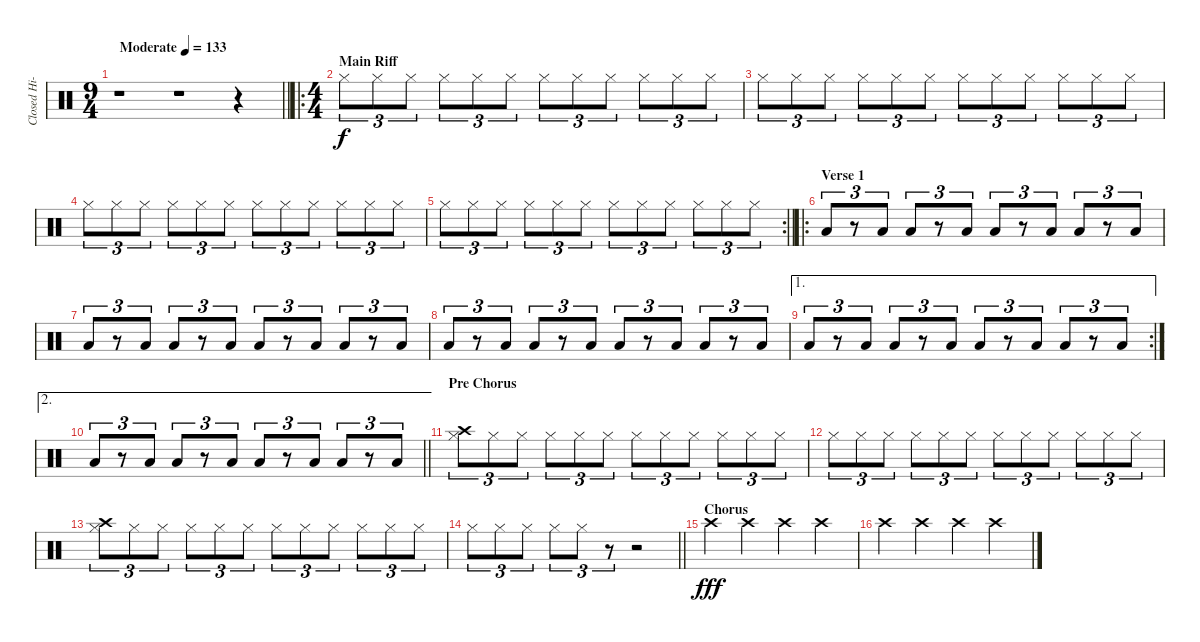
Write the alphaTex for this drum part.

\track ("Closed Hi-hat/Synth" "Closed Hi-") {instrument percussion}
\staff {score}
\articulation defaults
\ts (9 4)
\tempo (133 "Moderate")
\clef neutral
\barLineRight lightlight
\ks c
r.1{dy f} r.1 r.4 |
\ro
\ts (4 4)
\section ("" "Main Riff")
"Hi-Hat (closed)".8{tu (3 2)} "Hi-Hat (closed)".8{tu (3 2)} "Hi-Hat (closed)".8{tu (3 2)} "Hi-Hat (closed)".8{tu (3 2)} "Hi-Hat (closed)".8{tu (3 2)} "Hi-Hat (closed)".8{tu (3 2)} "Hi-Hat (closed)".8{tu (3 2)} "Hi-Hat (closed)".8{tu (3 2)} "Hi-Hat (closed)".8{tu (3 2)} "Hi-Hat (closed)".8{tu (3 2)} "Hi-Hat (closed)".8{tu (3 2)} "Hi-Hat (closed)".8{tu (3 2)} |
"Hi-Hat (closed)".8{tu (3 2)} "Hi-Hat (closed)".8{tu (3 2)} "Hi-Hat (closed)".8{tu (3 2)} "Hi-Hat (closed)".8{tu (3 2)} "Hi-Hat (closed)".8{tu (3 2)} "Hi-Hat (closed)".8{tu (3 2)} "Hi-Hat (closed)".8{tu (3 2)} "Hi-Hat (closed)".8{tu (3 2)} "Hi-Hat (closed)".8{tu (3 2)} "Hi-Hat (closed)".8{tu (3 2)} "Hi-Hat (closed)".8{tu (3 2)} "Hi-Hat (closed)".8{tu (3 2)} |
"Hi-Hat (closed)".8{tu (3 2)} "Hi-Hat (closed)".8{tu (3 2)} "Hi-Hat (closed)".8{tu (3 2)} "Hi-Hat (closed)".8{tu (3 2)} "Hi-Hat (closed)".8{tu (3 2)} "Hi-Hat (closed)".8{tu (3 2)} "Hi-Hat (closed)".8{tu (3 2)} "Hi-Hat (closed)".8{tu (3 2)} "Hi-Hat (closed)".8{tu (3 2)} "Hi-Hat (closed)".8{tu (3 2)} "Hi-Hat (closed)".8{tu (3 2)} "Hi-Hat (closed)".8{tu (3 2)} |
\rc 2
\barLineRight lightlight "Hi-Hat (closed)".8{tu (3 2)} "Hi-Hat (closed)".8{tu (3 2)} "Hi-Hat (closed)".8{tu (3 2)} "Hi-Hat (closed)".8{tu (3 2)} "Hi-Hat (closed)".8{tu (3 2)} "Hi-Hat (closed)".8{tu (3 2)} "Hi-Hat (closed)".8{tu (3 2)} "Hi-Hat (closed)".8{tu (3 2)} "Hi-Hat (closed)".8{tu (3 2)} "Hi-Hat (closed)".8{tu (3 2)} "Hi-Hat (closed)".8{tu (3 2)} "Hi-Hat (closed)".8{tu (3 2)}
|
\ro
\section ("" "Verse 1")
"Low Floor Tom (hit)".8{tu (3 2)} r.8{tu (3 2)} "Low Floor Tom (hit)".8{tu (3 2)} "Low Floor Tom (hit)".8{tu (3 2)} r.8{tu (3 2)} "Low Floor Tom (hit)".8{tu (3 2)} "Low Floor Tom (hit)".8{tu (3 2)} r.8{tu (3 2)} "Low Floor Tom (hit)".8{tu (3 2)} "Low Floor Tom (hit)".8{tu (3 2)} r.8{tu (3 2)} "Low Floor Tom (hit)".8{tu (3 2)} |
"Low Floor Tom (hit)".8{tu (3 2)} r.8{tu (3 2)} "Low Floor Tom (hit)".8{tu (3 2)} "Low Floor Tom (hit)".8{tu (3 2)} r.8{tu (3 2)} "Low Floor Tom (hit)".8{tu (3 2)} "Low Floor Tom (hit)".8{tu (3 2)} r.8{tu (3 2)} "Low Floor Tom (hit)".8{tu (3 2)} "Low Floor Tom (hit)".8{tu (3 2)} r.8{tu (3 2)} "Low Floor Tom (hit)".8{tu (3 2)} |
"Low Floor Tom (hit)".8{tu (3 2)} r.8{tu (3 2)} "Low Floor Tom (hit)".8{tu (3 2)} "Low Floor Tom (hit)".8{tu (3 2)} r.8{tu (3 2)} "Low Floor Tom (hit)".8{tu (3 2)} "Low Floor Tom (hit)".8{tu (3 2)} r.8{tu (3 2)} "Low Floor Tom (hit)".8{tu (3 2)} "Low Floor Tom (hit)".8{tu (3 2)} r.8{tu (3 2)} "Low Floor Tom (hit)".8{tu (3 2)} |
\ae 1
\rc 2 "Low Floor Tom (hit)".8{tu (3 2)}
r.8{tu (3 2)} "Low Floor Tom (hit)".8{tu (3 2)} "Low Floor Tom (hit)".8{tu (3 2)} r.8{tu (3 2)} "Low Floor Tom (hit)".8{tu (3 2)} "Low Floor Tom (hit)".8{tu (3 2)} r.8{tu (3 2)} "Low Floor Tom (hit)".8{tu (3 2)} "Low Floor Tom (hit)".8{tu (3 2)} r.8{tu (3 2)} "Low Floor Tom (hit)".8{tu (3 2)} |
\ae 2
\barLineRight lightlight "Low Floor Tom (hit)".8{tu (3 2)}
r.8{tu (3 2)} "Low Floor Tom (hit)".8{tu (3 2)} "Low Floor Tom (hit)".8{tu (3 2)} r.8{tu (3 2)} "Low Floor Tom (hit)".8{tu (3 2)} "Low Floor Tom (hit)".8{tu (3 2)} r.8{tu (3 2)} "Low Floor Tom (hit)".8{tu (3 2)} "Low Floor Tom (hit)".8{tu (3 2)} r.8{tu (3 2)} "Low Floor Tom (hit)".8{tu (3 2)} |
\section ("" "Pre Chorus")
("Crash high (hit)" "Hi-Hat (closed)").8{tu (3 2)} "Hi-Hat (closed)".8{tu (3 2)} "Hi-Hat (closed)".8{tu (3 2)} "Hi-Hat (closed)".8{tu (3 2)} "Hi-Hat (closed)".8{tu (3 2)} "Hi-Hat (closed)".8{tu (3 2)} "Hi-Hat (closed)".8{tu (3 2)} "Hi-Hat (closed)".8{tu (3 2)} "Hi-Hat (closed)".8{tu (3 2)} "Hi-Hat (closed)".8{tu (3 2)} "Hi-Hat (closed)".8{tu (3 2)} "Hi-Hat (closed)".8{tu (3 2)} |
"Hi-Hat (closed)".8{tu (3 2)} "Hi-Hat (closed)".8{tu (3 2)} "Hi-Hat (closed)".8{tu (3 2)} "Hi-Hat (closed)".8{tu (3 2)} "Hi-Hat (closed)".8{tu (3 2)} "Hi-Hat (closed)".8{tu (3 2)} "Hi-Hat (closed)".8{tu (3 2)} "Hi-Hat (closed)".8{tu (3 2)} "Hi-Hat (closed)".8{tu (3 2)} "Hi-Hat (closed)".8{tu (3 2)} "Hi-Hat (closed)".8{tu (3 2)} "Hi-Hat (closed)".8{tu (3 2)} |
("Crash high (hit)" "Hi-Hat (closed)").8{tu (3 2)} "Hi-Hat (closed)".8{tu (3 2)} "Hi-Hat (closed)".8{tu (3 2)} "Hi-Hat (closed)".8{tu (3 2)} "Hi-Hat (closed)".8{tu (3 2)} "Hi-Hat (closed)".8{tu (3 2)} "Hi-Hat (closed)".8{tu (3 2)} "Hi-Hat (closed)".8{tu (3 2)} "Hi-Hat (closed)".8{tu (3 2)} "Hi-Hat (closed)".8{tu (3 2)} "Hi-Hat (closed)".8{tu (3 2)} "Hi-Hat (closed)".8{tu (3 2)} |
\barLineRight lightlight "Hi-Hat (closed)".8{tu (3 2)} "Hi-Hat (closed)".8{tu (3 2)} "Hi-Hat (closed)".8{tu (3 2)} "Hi-Hat (closed)".8{tu (3 2)} "Hi-Hat (closed)".8{tu (3 2)}
r.8{tu (3 2)} r.2 |
\section ("" "Chorus")
"Crash high (hit)".4{dy fff} "Crash high (hit)".4 "Crash high (hit)".4 "Crash high (hit)".4 |
"Crash high (hit)".4 "Crash high (hit)".4 "Crash high (hit)".4 "Crash high (hit)".4
